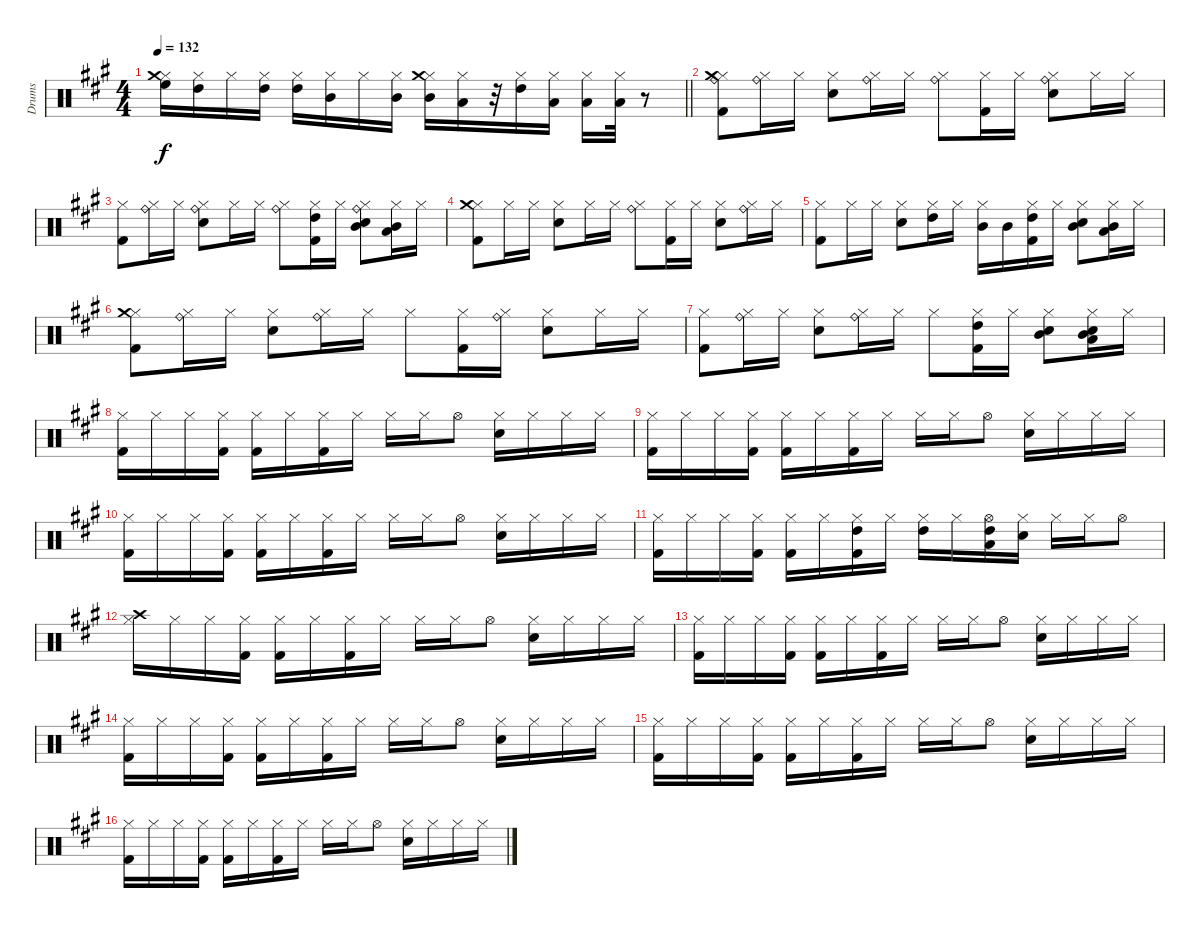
\track ("Drums" "Drums") {instrument percussion}
\staff {score}
\articulation defaults
\ts (4 4)
\tempo 132
\clef neutral
\barLineRight lightlight
\ks a
("Hi-Hat (closed)" "High Floor Tom (hit)" "Crash medium (hit)").16{dy f} ("Hi-Hat (closed)" "High Tom (hit)").16 "Hi-Hat (closed)".16 ("Hi-Hat (closed)" "High Tom (hit)").16 ("Hi-Hat (closed)" "High Tom (hit)").16 ("Hi-Hat (closed)" "Mid Tom (hit)").16 "Hi-Hat (closed)".16 ("Hi-Hat (closed)" "Mid Tom (hit)").16 ("Hi-Hat (closed)" "Mid Tom (hit)" "Crash medium (hit)").16 ("Hi-Hat (closed)" "Low Tom (hit)").16 r.32 ("Hi-Hat (closed)" "High Tom (hit)").16 ("Hi-Hat (closed)" "Low Tom (hit)").16 ("Hi-Hat (closed)" "Low Tom (hit)").16 ("Hi-Hat (closed)" "Low Tom (hit)").32 r.8 |
("Kick (hit) 2" "Hi-Hat (closed)" "Ride (bell)" "Crash medium (hit)").8 ("Hi-Hat (closed)" "Ride (bell)").16 "Hi-Hat (closed)".16 ("Snare (hit) 2" "Hi-Hat (closed)").8 ("Hi-Hat (closed)" "Ride (bell)").16 "Hi-Hat (closed)".16 ("Hi-Hat (closed)" "Ride (bell)").8 ("Kick (hit) 2" "Hi-Hat (closed)").16 "Hi-Hat (closed)".16 ("Snare (hit) 2" "Hi-Hat (closed)" "Ride (bell)").8 "Hi-Hat (closed)".16 "Hi-Hat (closed)".16 |
("Kick (hit) 2" "Hi-Hat (closed)").8 ("Hi-Hat (closed)" "Ride (bell)").16 "Hi-Hat (closed)".16 ("Snare (hit) 2" "Hi-Hat (closed)" "Ride (bell)").8 "Hi-Hat (closed)".16 "Hi-Hat (closed)".16 ("Hi-Hat (closed)" "Ride (bell)").8 ("Kick (hit) 2" "Hi-Hat (closed)" "High Tom (hit)").16 "Hi-Hat (closed)".16 ("Snare (hit) 2" "Hi-Hat (closed)" "Mid Tom (hit)" "Ride (bell)").8 ("Hi-Hat (closed)" "Low Tom (hit)" "Mid Tom (hit)").16 "Hi-Hat (closed)".16 |
("Kick (hit) 2" "Hi-Hat (closed)" "Crash medium (hit)").8 "Hi-Hat (closed)".16 "Hi-Hat (closed)".16 ("Snare (hit) 2" "Hi-Hat (closed)").8 "Hi-Hat (closed)".16 "Hi-Hat (closed)".16 ("Hi-Hat (closed)" "Ride (bell)").8 ("Kick (hit) 2" "Hi-Hat (closed)").16 "Hi-Hat (closed)".16 ("Snare (hit) 2" "Hi-Hat (closed)").8 ("Hi-Hat (closed)" "Ride (bell)").16 "Hi-Hat (closed)".16 |
("Kick (hit) 2" "Hi-Hat (closed)").8 "Hi-Hat (closed)".16 "Hi-Hat (closed)".16 ("Snare (hit) 2" "Hi-Hat (closed)").8 ("Hi-Hat (closed)" "High Tom (hit)").16 "Hi-Hat (closed)".16 ("Hi-Hat (closed)" "Mid Tom (hit)").16 "Mid Tom (hit)".16 ("Kick (hit) 2" "Hi-Hat (closed)" "High Tom (hit)").16 "Hi-Hat (closed)".16 ("Snare (hit) 2" "Hi-Hat (closed)" "Mid Tom (hit)").8 ("Hi-Hat (closed)" "Low Tom (hit)" "Mid Tom (hit)").16 "Hi-Hat (closed)".16 |
("Kick (hit) 2" "Hi-Hat (closed)" "Crash medium (hit)").8 ("Hi-Hat (closed)" "Ride (bell)").16 "Hi-Hat (closed)".16 ("Snare (hit) 2" "Hi-Hat (closed)").8 ("Hi-Hat (closed)" "Ride (bell)").16 "Hi-Hat (closed)".16 "Hi-Hat (closed)".8 ("Kick (hit) 2" "Hi-Hat (closed)").16 ("Hi-Hat (closed)" "Ride (bell)").16 ("Snare (hit) 2" "Hi-Hat (closed)").8 "Hi-Hat (closed)".16 "Hi-Hat (closed)".16 |
("Kick (hit) 2" "Hi-Hat (closed)").8 ("Hi-Hat (closed)" "Ride (bell)").16 "Hi-Hat (closed)".16 ("Snare (hit) 2" "Hi-Hat (closed)").8 ("Hi-Hat (closed)" "Ride (bell)").16 "Hi-Hat (closed)".16 "Hi-Hat (closed)".8 ("Kick (hit) 2" "Hi-Hat (closed)" "High Tom (hit)").16 "Hi-Hat (closed)".16 ("Snare (hit) 2" "Hi-Hat (closed)" "Mid Tom (hit)").8 ("Snare (hit) 2" "Hi-Hat (closed)" "Low Tom (hit)" "Mid Tom (hit)").16 "Hi-Hat (closed)".16 |
("Kick (hit) 2" "Hi-Hat (closed)").16 "Hi-Hat (closed)".16 "Hi-Hat (closed)".16 ("Kick (hit) 2" "Hi-Hat (closed)").16 ("Kick (hit) 2" "Hi-Hat (closed)").16 "Hi-Hat (closed)".16 ("Kick (hit) 2" "Hi-Hat (closed)").16 "Hi-Hat (closed)".16 "Hi-Hat (closed)".16 "Hi-Hat (closed)".16 "Hi-Hat (open)".8 ("Snare (hit) 2" "Hi-Hat (closed)").16 "Hi-Hat (closed)".16 "Hi-Hat (closed)".16 "Hi-Hat (closed)".16 |
("Kick (hit) 2" "Hi-Hat (closed)").16 "Hi-Hat (closed)".16 "Hi-Hat (closed)".16 ("Kick (hit) 2" "Hi-Hat (closed)").16 ("Kick (hit) 2" "Hi-Hat (closed)").16 "Hi-Hat (closed)".16 ("Kick (hit) 2" "Hi-Hat (closed)").16 "Hi-Hat (closed)".16 "Hi-Hat (closed)".16 "Hi-Hat (closed)".16 "Hi-Hat (open)".8 ("Snare (hit) 2" "Hi-Hat (closed)").16 "Hi-Hat (closed)".16 "Hi-Hat (closed)".16 "Hi-Hat (closed)".16 |
("Kick (hit) 2" "Hi-Hat (closed)").16 "Hi-Hat (closed)".16 "Hi-Hat (closed)".16 ("Kick (hit) 2" "Hi-Hat (closed)").16 ("Kick (hit) 2" "Hi-Hat (closed)").16 "Hi-Hat (closed)".16 ("Kick (hit) 2" "Hi-Hat (closed)").16 "Hi-Hat (closed)".16 "Hi-Hat (closed)".16 "Hi-Hat (closed)".16 "Hi-Hat (open)".8 ("Snare (hit) 2" "Hi-Hat (closed)").16 "Hi-Hat (closed)".16 "Hi-Hat (closed)".16 "Hi-Hat (closed)".16 |
("Kick (hit) 2" "Hi-Hat (closed)").16 "Hi-Hat (closed)".16 "Hi-Hat (closed)".16 ("Kick (hit) 2" "Hi-Hat (closed)").16 ("Kick (hit) 2" "Hi-Hat (closed)").16 "Hi-Hat (closed)".16 ("Kick (hit) 2" "Hi-Hat (closed)" "High Tom (hit)").16 "Hi-Hat (closed)".16 ("Hi-Hat (closed)" "High Tom (hit)").16 "Hi-Hat (closed)".16 ("Low Tom (hit)" "Hi-Hat (open)" "High Tom (hit)").16 ("Snare (hit) 2" "Hi-Hat (closed)").16 "Hi-Hat (closed)".16 "Hi-Hat (closed)".16 "Hi-Hat (open)".8 |
("Crash high (hit)" "Hi-Hat (closed)").16 "Hi-Hat (closed)".16 "Hi-Hat (closed)".16 ("Kick (hit) 2" "Hi-Hat (closed)").16 ("Kick (hit) 2" "Hi-Hat (closed)").16 "Hi-Hat (closed)".16 ("Kick (hit) 2" "Hi-Hat (closed)").16 "Hi-Hat (closed)".16 "Hi-Hat (closed)".16 "Hi-Hat (closed)".16 "Hi-Hat (open)".8 ("Snare (hit) 2" "Hi-Hat (closed)").16 "Hi-Hat (closed)".16 "Hi-Hat (closed)".16 "Hi-Hat (closed)".16 |
("Kick (hit) 2" "Hi-Hat (closed)").16 "Hi-Hat (closed)".16 "Hi-Hat (closed)".16 ("Kick (hit) 2" "Hi-Hat (closed)").16 ("Kick (hit) 2" "Hi-Hat (closed)").16 "Hi-Hat (closed)".16 ("Kick (hit) 2" "Hi-Hat (closed)").16 "Hi-Hat (closed)".16 "Hi-Hat (closed)".16 "Hi-Hat (closed)".16 "Hi-Hat (open)".8 ("Snare (hit) 2" "Hi-Hat (closed)").16 "Hi-Hat (closed)".16 "Hi-Hat (closed)".16 "Hi-Hat (closed)".16 |
("Kick (hit) 2" "Hi-Hat (closed)").16 "Hi-Hat (closed)".16 "Hi-Hat (closed)".16 ("Kick (hit) 2" "Hi-Hat (closed)").16 ("Kick (hit) 2" "Hi-Hat (closed)").16 "Hi-Hat (closed)".16 ("Kick (hit) 2" "Hi-Hat (closed)").16 "Hi-Hat (closed)".16 "Hi-Hat (closed)".16 "Hi-Hat (closed)".16 "Hi-Hat (open)".8 ("Snare (hit) 2" "Hi-Hat (closed)").16 "Hi-Hat (closed)".16 "Hi-Hat (closed)".16 "Hi-Hat (closed)".16 |
("Kick (hit) 2" "Hi-Hat (closed)").16 "Hi-Hat (closed)".16 "Hi-Hat (closed)".16 ("Kick (hit) 2" "Hi-Hat (closed)").16 ("Kick (hit) 2" "Hi-Hat (closed)").16 "Hi-Hat (closed)".16 ("Kick (hit) 2" "Hi-Hat (closed)").16 "Hi-Hat (closed)".16 "Hi-Hat (closed)".16 "Hi-Hat (closed)".16 "Hi-Hat (open)".8 ("Snare (hit) 2" "Hi-Hat (closed)").16 "Hi-Hat (closed)".16 "Hi-Hat (closed)".16 "Hi-Hat (closed)".16 |
("Kick (hit) 2" "Hi-Hat (closed)").16 "Hi-Hat (closed)".16 "Hi-Hat (closed)".16 ("Kick (hit) 2" "Hi-Hat (closed)").16 ("Kick (hit) 2" "Hi-Hat (closed)").16 "Hi-Hat (closed)".16 ("Kick (hit) 2" "Hi-Hat (closed)").16 "Hi-Hat (closed)".16 "Hi-Hat (closed)".16 "Hi-Hat (closed)".16 "Hi-Hat (open)".8 ("Snare (hit) 2" "Hi-Hat (closed)").16 "Hi-Hat (closed)".16 "Hi-Hat (closed)".16 "Hi-Hat (closed)".16
